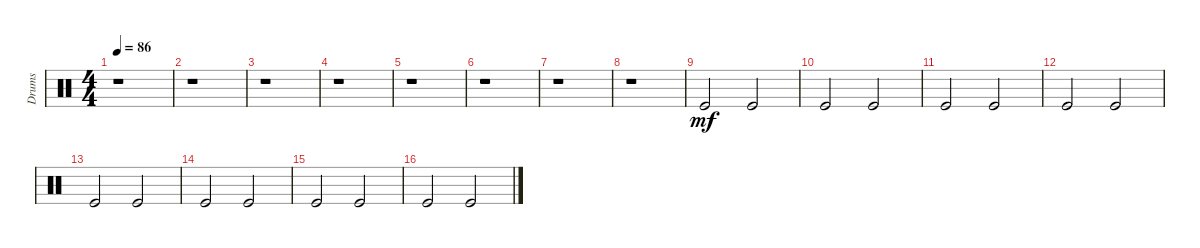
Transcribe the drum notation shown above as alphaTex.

\track ("Drums" "Drums") {instrument percussion}
\staff {score}
\articulation defaults
\ts (4 4)
\tempo 86
\clef neutral
\ks c
r.1{dy mf} |
r.1 |
r.1 |
r.1 |
r.1 |
r.1 |
r.1 |
r.1 |
"Kick (hit)".2 "Kick (hit)".2 |
"Kick (hit)".2 "Kick (hit)".2 |
"Kick (hit)".2 "Kick (hit)".2 |
"Kick (hit)".2 "Kick (hit)".2 |
"Kick (hit)".2 "Kick (hit)".2 |
"Kick (hit)".2 "Kick (hit)".2 |
"Kick (hit)".2 "Kick (hit)".2 |
"Kick (hit)".2 "Kick (hit)".2
